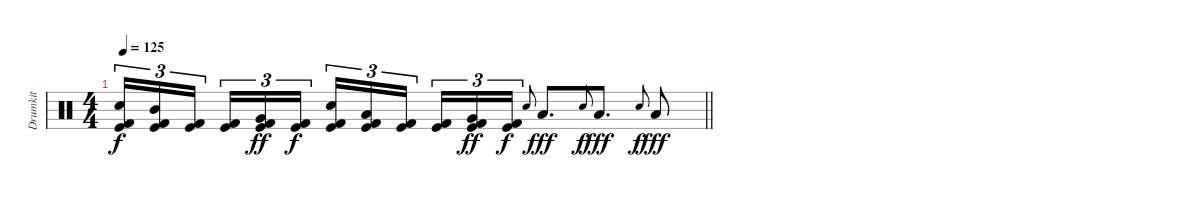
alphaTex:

\track ("Drumkit" "Drumkit") {instrument percussion}
\staff {score}
\articulation defaults
\ts (4 4)
\tempo 125
\clef neutral
\barLineRight lightlight
\ks c
("Electric Snare (hit)" "Kick (hit)" "Kick (hit) 2").16{tu (3 2) dy f} ("Mid Tom (hit)" "Kick (hit)" "Kick (hit) 2").16{tu (3 2)} ("Kick (hit)" "Kick (hit) 2").16{tu (3 2) beam splitsecondary} ("Kick (hit)" "Kick (hit) 2").16{tu (3 2)} ("Very Low Tom (hit)" "Kick (hit)" "Kick (hit) 2").16{tu (3 2) dy ff} ("Kick (hit)" "Kick (hit) 2").16{tu (3 2) dy f} ("Electric Snare (hit)" "Kick (hit)" "Kick (hit) 2").16{tu (3 2)} ("Low Tom (hit)" "Kick (hit)" "Kick (hit) 2").16{tu (3 2)} ("Kick (hit)" "Kick (hit) 2").16{tu (3 2) beam splitsecondary} ("Kick (hit)" "Kick (hit) 2").16{tu (3 2)} ("Very Low Tom (hit)" "Kick (hit)" "Kick (hit) 2").16{tu (3 2) dy ff} ("Kick (hit)" "Kick (hit) 2").16{tu (3 2) dy f} "Electric Snare (hit)".8{gr onbeat} "Low Floor Tom (hit)".8{d dy fff} "Electric Snare (hit)".8{gr onbeat dy f} "Low Floor Tom (hit)".8{d dy fff} "Electric Snare (hit)".8{gr onbeat dy f} "Low Floor Tom (hit)".8{dy fff}
